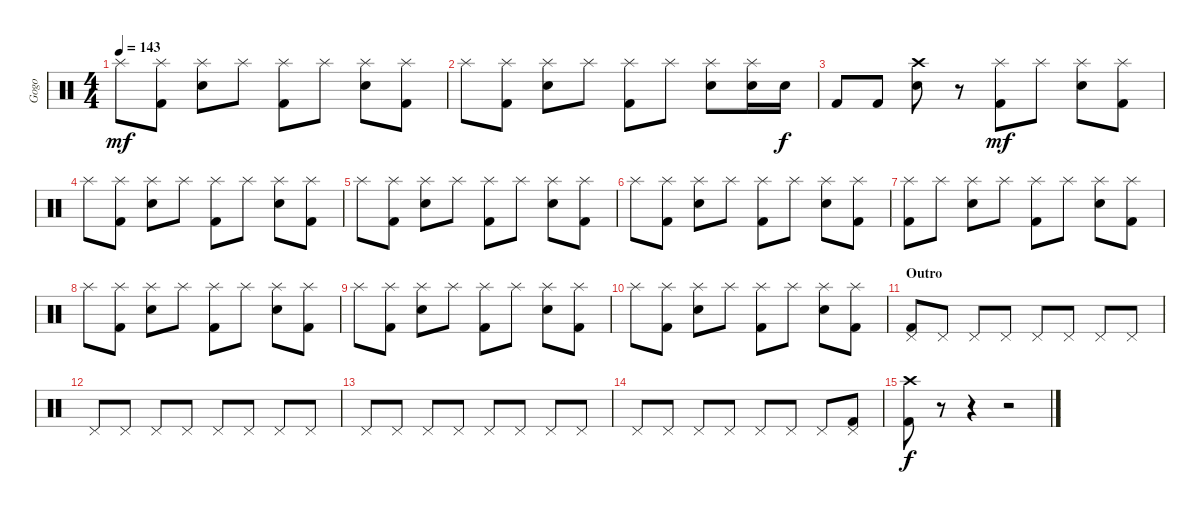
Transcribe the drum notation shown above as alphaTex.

\track ("Gogo" "Gogo") {instrument percussion}
\staff {score}
\articulation defaults
\ts (4 4)
\tempo 143
\clef neutral
\ks c "Splash (hit)".8{dy mf}
("Splash (hit)" "Kick (hit) 2").8 ("Splash (hit)" "Electric Snare (hit)").8 "Splash (hit)".8 ("Splash (hit)" "Kick (hit) 2").8 "Splash (hit)".8 ("Splash (hit)" "Electric Snare (hit)").8 ("Splash (hit)" "Kick (hit) 2").8 |
"Splash (hit)".8 ("Splash (hit)" "Kick (hit) 2").8 ("Splash (hit)" "Electric Snare (hit)").8 "Splash (hit)".8 ("Splash (hit)" "Kick (hit) 2").8 "Splash (hit)".8 ("Splash (hit)" "Electric Snare (hit)").8 ("Splash (hit)" "Electric Snare (hit)").16 "Electric Snare (hit)".16{dy f} |
"Kick (hit) 2".8 "Kick (hit) 2".8 ("Crash high (hit)" "Electric Snare (hit)").8 r.8 ("Splash (hit)" "Kick (hit) 2").8{dy mf} "Splash (hit)".8 ("Splash (hit)" "Electric Snare (hit)").8 ("Splash (hit)" "Kick (hit) 2").8 |
"Splash (hit)".8 ("Splash (hit)" "Kick (hit) 2").8 ("Splash (hit)" "Electric Snare (hit)").8 "Splash (hit)".8 ("Splash (hit)" "Kick (hit) 2").8 "Splash (hit)".8 ("Splash (hit)" "Electric Snare (hit)").8 ("Splash (hit)" "Kick (hit) 2").8 |
"Splash (hit)".8 ("Splash (hit)" "Kick (hit) 2").8 ("Splash (hit)" "Electric Snare (hit)").8 "Splash (hit)".8 ("Splash (hit)" "Kick (hit) 2").8 "Splash (hit)".8 ("Splash (hit)" "Electric Snare (hit)").8 ("Splash (hit)" "Kick (hit) 2").8 |
"Splash (hit)".8 ("Splash (hit)" "Kick (hit) 2").8 ("Splash (hit)" "Electric Snare (hit)").8 "Splash (hit)".8 ("Splash (hit)" "Kick (hit) 2").8 "Splash (hit)".8 ("Splash (hit)" "Electric Snare (hit)").8 ("Splash (hit)" "Kick (hit) 2").8 |
("Splash (hit)" "Kick (hit) 2").8 "Splash (hit)".8 ("Splash (hit)" "Electric Snare (hit)").8 "Splash (hit)".8 ("Splash (hit)" "Kick (hit) 2").8 "Splash (hit)".8 ("Splash (hit)" "Electric Snare (hit)").8 ("Splash (hit)" "Kick (hit) 2").8 |
"Splash (hit)".8 ("Splash (hit)" "Kick (hit) 2").8 ("Splash (hit)" "Electric Snare (hit)").8 "Splash (hit)".8 ("Splash (hit)" "Kick (hit) 2").8 "Splash (hit)".8 ("Splash (hit)" "Electric Snare (hit)").8 ("Splash (hit)" "Kick (hit) 2").8 |
"Splash (hit)".8 ("Splash (hit)" "Kick (hit) 2").8 ("Splash (hit)" "Electric Snare (hit)").8 "Splash (hit)".8 ("Splash (hit)" "Kick (hit) 2").8 "Splash (hit)".8 ("Splash (hit)" "Electric Snare (hit)").8 ("Splash (hit)" "Kick (hit) 2").8 |
"Splash (hit)".8 ("Splash (hit)" "Kick (hit) 2").8 ("Splash (hit)" "Electric Snare (hit)").8 "Splash (hit)".8 ("Splash (hit)" "Kick (hit) 2").8 "Splash (hit)".8 ("Splash (hit)" "Electric Snare (hit)").8 ("Splash (hit)" "Kick (hit) 2").8 |
\section ("" "Outro")
("Pedal Hi-Hat (hit)" "Kick (hit) 2").8 "Pedal Hi-Hat (hit)".8 "Pedal Hi-Hat (hit)".8 "Pedal Hi-Hat (hit)".8 "Pedal Hi-Hat (hit)".8 "Pedal Hi-Hat (hit)".8 "Pedal Hi-Hat (hit)".8 "Pedal Hi-Hat (hit)".8 |
"Pedal Hi-Hat (hit)".8 "Pedal Hi-Hat (hit)".8 "Pedal Hi-Hat (hit)".8 "Pedal Hi-Hat (hit)".8 "Pedal Hi-Hat (hit)".8 "Pedal Hi-Hat (hit)".8 "Pedal Hi-Hat (hit)".8 "Pedal Hi-Hat (hit)".8 |
"Pedal Hi-Hat (hit)".8 "Pedal Hi-Hat (hit)".8 "Pedal Hi-Hat (hit)".8 "Pedal Hi-Hat (hit)".8 "Pedal Hi-Hat (hit)".8 "Pedal Hi-Hat (hit)".8 "Pedal Hi-Hat (hit)".8 "Pedal Hi-Hat (hit)".8 |
"Pedal Hi-Hat (hit)".8 "Pedal Hi-Hat (hit)".8 "Pedal Hi-Hat (hit)".8 "Pedal Hi-Hat (hit)".8 "Pedal Hi-Hat (hit)".8 "Pedal Hi-Hat (hit)".8 "Pedal Hi-Hat (hit)".8 ("Pedal Hi-Hat (hit)" "Kick (hit) 2").8 |
("Crash high (hit)" "Kick (hit) 2").8{dy f} r.8 r.4 r.2
